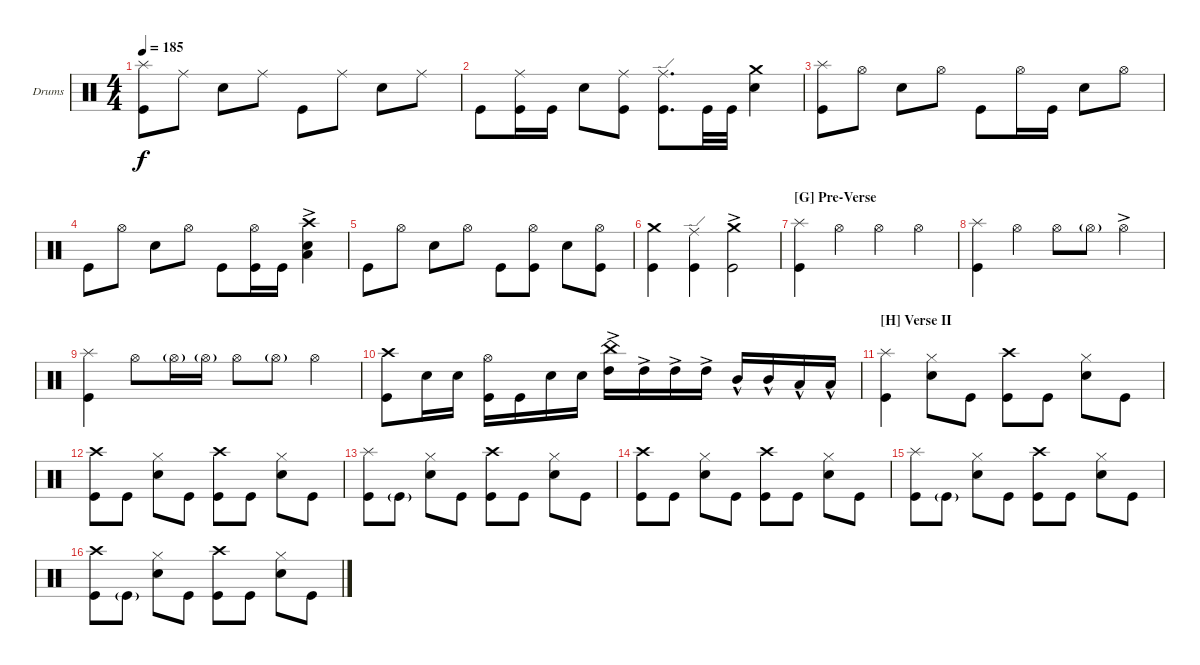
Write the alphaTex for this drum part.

\defaultSystemsLayout 4
\bracketExtendMode groupsimilarinstruments
\firstSystemTrackNameOrientation horizontal
\otherSystemsTrackNameOrientation horizontal
\track ("Drumkit" "Drums") {instrument percussion}
\staff {score}
\articulation defaults
\ts (4 4)
\tempo 185
\clef neutral
\ks c
("Kick (hit)" "Splash (hit)").8{dy f} "Ride (middle)".8 "Snare (hit) 2".8 "Ride (middle)".8 "Kick (hit)".8 "Ride (middle)".8 "Snare (hit) 2".8 "Ride (middle)".8 |
"Kick (hit)".8 ("Ride (middle)" "Kick (hit)").16 "Kick (hit)".16 "Snare (hit) 2".8 ("Ride (middle)" "Kick (hit)").8 ("Kick (hit)" "Ride (edge)").8{d} "Kick (hit)".32 "Kick (hit)".32 ("Snare (hit) 2" "Crash medium (hit)").4 |
("Kick (hit)" "Splash (hit)").8 "Hi-Hat (open)".8 "Snare (hit) 2".8 "Hi-Hat (open)".8 "Kick (hit)".8 "Hi-Hat (open)".16 "Kick (hit)".16 "Snare (hit) 2".8 "Hi-Hat (open)".8 |
"Kick (hit)".8 "Hi-Hat (open)".8 "Snare (hit) 2".8 "Hi-Hat (open)".8 "Kick (hit)".8 ("Kick (hit)" "Hi-Hat (open)").16 "Kick (hit)".16 ("Snare (hit) 2" "Crash high (hit)" "Low Tom (hit)"{ac}).4 |
"Kick (hit)".8 "Hi-Hat (open)".8 "Snare (hit) 2".8 "Hi-Hat (open)".8 "Kick (hit)".8 ("Kick (hit)" "Hi-Hat (open)").8 "Snare (hit) 2".8 ("Kick (hit)" "Hi-Hat (open)").8 |
("Kick (hit)" "Crash medium (hit)").4 ("Kick (hit)" "Ride (edge)").4 ("Kick (hit)" "Crash medium (hit)"{ac}).2 |
\section ("G" "Pre-Verse")
("Kick (hit)" "Splash (hit)").4 "Hi-Hat (open)".4 "Hi-Hat (open)".4 "Hi-Hat (open)".4 |
("Kick (hit)" "Splash (hit)").4 "Hi-Hat (open)".4 "Hi-Hat (open)".8 "Hi-Hat (open)"{g}.8 "Hi-Hat (open)"{ac}.4 |
("Kick (hit)" "Splash (hit)").4 "Hi-Hat (open)".8 "Hi-Hat (open)"{g}.16 "Hi-Hat (open)"{g}.16 "Hi-Hat (open)".8 "Hi-Hat (open)"{g}.8 "Hi-Hat (open)".4 |
("Kick (hit)" "Crash high (hit)").8 "Snare (hit) 2".16 "Snare (hit) 2".16 ("Kick (hit)" "Hi-Hat (open)").16 "Kick (hit)".16 "Snare (hit) 2".16 "Snare (hit) 2".16 ("China (hit)"{ac} "High Tom (hit)"{ac}).16 "High Tom (hit)"{ac}.16 "High Tom (hit)"{ac}.16 "High Tom (hit)"{ac}.16 "Mid Tom (hit)"{hac}.16 "Mid Tom (hit)"{hac}.16 "Low Tom (hit)"{hac}.16 "Low Tom (hit)"{hac}.16 |
\section ("H" "Verse II")
("Kick (hit)" "Splash (hit)").4 ("Snare (hit) 2" "Hi-Hat (closed)").8 "Kick (hit)".8 ("Kick (hit)" "Crash high (hit)").8 "Kick (hit)".8 ("Snare (hit) 2" "Hi-Hat (closed)").8 "Kick (hit)".8 |
("Kick (hit)" "Crash high (hit)").8 "Kick (hit)".8 ("Snare (hit) 2" "Hi-Hat (closed)").8 "Kick (hit)".8 ("Kick (hit)" "Crash high (hit)").8 "Kick (hit)".8 ("Snare (hit) 2" "Hi-Hat (closed)").8 "Kick (hit)".8 |
("Kick (hit)" "Splash (hit)").8 "Kick (hit)"{g}.8 ("Snare (hit) 2" "Hi-Hat (closed)").8 "Kick (hit)".8 ("Kick (hit)" "Crash high (hit)").8 "Kick (hit)".8 ("Snare (hit) 2" "Hi-Hat (closed)").8 "Kick (hit)".8 |
("Kick (hit)" "Crash high (hit)").8 "Kick (hit)".8 ("Snare (hit) 2" "Hi-Hat (closed)").8 "Kick (hit)".8 ("Kick (hit)" "Crash high (hit)").8 "Kick (hit)".8 ("Snare (hit) 2" "Hi-Hat (closed)").8 "Kick (hit)".8 |
("Kick (hit)" "Splash (hit)").8 "Kick (hit)"{g}.8 ("Snare (hit) 2" "Hi-Hat (closed)").8 "Kick (hit)".8 ("Kick (hit)" "Crash high (hit)").8 "Kick (hit)".8 ("Snare (hit) 2" "Hi-Hat (closed)").8 "Kick (hit)".8 |
("Kick (hit)" "Crash high (hit)").8 "Kick (hit)"{g}.8 ("Snare (hit) 2" "Hi-Hat (closed)").8 "Kick (hit)".8 ("Kick (hit)" "Crash high (hit)").8 "Kick (hit)".8 ("Snare (hit) 2" "Hi-Hat (closed)").8 "Kick (hit)".8
